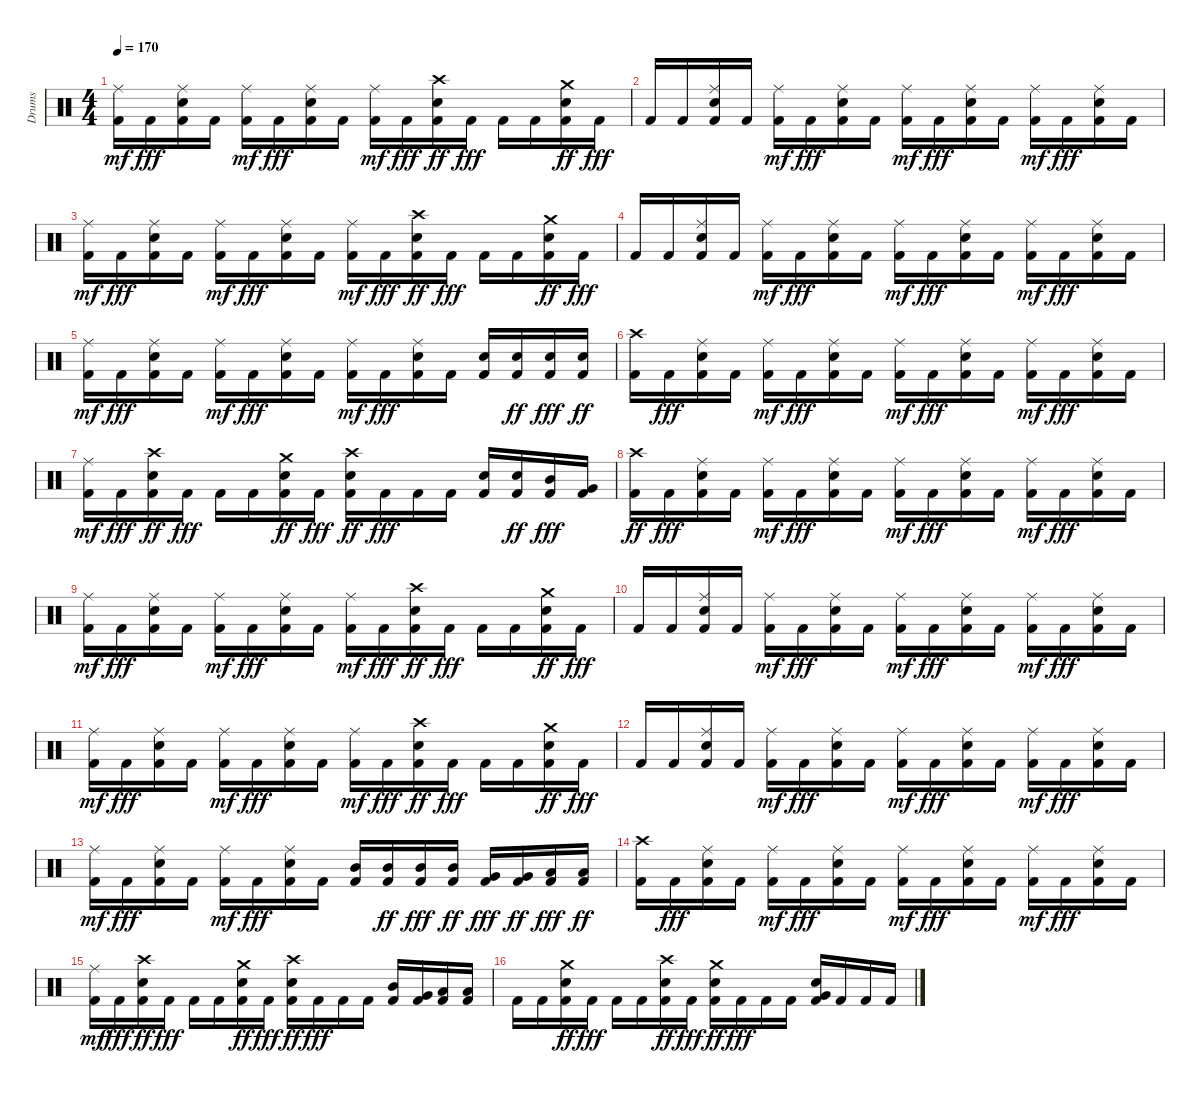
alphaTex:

\track ("Drums" "Drums") {instrument percussion}
\staff {score}
\articulation defaults
\ts (4 4)
\tempo 170
\clef neutral
\ks c
("Kick (hit) 2" "Ride (middle)").16{dy mf} "Kick (hit) 2".16{dy fff} ("Kick (hit) 2" "Snare (hit) 2" "Ride (middle)").16 "Kick (hit) 2".16 ("Kick (hit) 2" "Ride (middle)").16{dy mf} "Kick (hit) 2".16{dy fff} ("Kick (hit) 2" "Snare (hit) 2" "Ride (middle)").16 "Kick (hit) 2".16 ("Kick (hit) 2" "Ride (middle)").16{dy mf} "Kick (hit) 2".16{dy fff} ("Kick (hit) 2" "Snare (hit) 2" "Crash high (hit)").16{dy ff} "Kick (hit) 2".16{dy fff} "Kick (hit) 2".16 "Kick (hit) 2".16 ("Kick (hit) 2" "Snare (hit) 2" "Crash medium (hit)").16{dy ff} "Kick (hit) 2".16{dy fff} |
"Kick (hit) 2".16 "Kick (hit) 2".16 ("Kick (hit) 2" "Snare (hit) 2" "Ride (middle)").16 "Kick (hit) 2".16 ("Kick (hit) 2" "Ride (middle)").16{dy mf} "Kick (hit) 2".16{dy fff} ("Kick (hit) 2" "Snare (hit) 2" "Ride (middle)").16 "Kick (hit) 2".16 ("Kick (hit) 2" "Ride (middle)").16{dy mf} "Kick (hit) 2".16{dy fff} ("Kick (hit) 2" "Snare (hit) 2" "Ride (middle)").16 "Kick (hit) 2".16 ("Kick (hit) 2" "Ride (middle)").16{dy mf} "Kick (hit) 2".16{dy fff} ("Kick (hit) 2" "Snare (hit) 2" "Ride (middle)").16 "Kick (hit) 2".16 |
("Kick (hit) 2" "Ride (middle)").16{dy mf} "Kick (hit) 2".16{dy fff} ("Kick (hit) 2" "Snare (hit) 2" "Ride (middle)").16 "Kick (hit) 2".16 ("Kick (hit) 2" "Ride (middle)").16{dy mf} "Kick (hit) 2".16{dy fff} ("Kick (hit) 2" "Snare (hit) 2" "Ride (middle)").16 "Kick (hit) 2".16 ("Kick (hit) 2" "Ride (middle)").16{dy mf} "Kick (hit) 2".16{dy fff} ("Kick (hit) 2" "Snare (hit) 2" "Crash high (hit)").16{dy ff} "Kick (hit) 2".16{dy fff} "Kick (hit) 2".16 "Kick (hit) 2".16 ("Kick (hit) 2" "Snare (hit) 2" "Crash medium (hit)").16{dy ff} "Kick (hit) 2".16{dy fff} |
"Kick (hit) 2".16 "Kick (hit) 2".16 ("Kick (hit) 2" "Snare (hit) 2" "Ride (middle)").16 "Kick (hit) 2".16 ("Kick (hit) 2" "Ride (middle)").16{dy mf} "Kick (hit) 2".16{dy fff} ("Kick (hit) 2" "Snare (hit) 2" "Ride (middle)").16 "Kick (hit) 2".16 ("Kick (hit) 2" "Ride (middle)").16{dy mf} "Kick (hit) 2".16{dy fff} ("Kick (hit) 2" "Snare (hit) 2" "Ride (middle)").16 "Kick (hit) 2".16 ("Kick (hit) 2" "Ride (middle)").16{dy mf} "Kick (hit) 2".16{dy fff} ("Kick (hit) 2" "Snare (hit) 2" "Ride (middle)").16 "Kick (hit) 2".16 |
("Kick (hit) 2" "Ride (middle)").16{dy mf} "Kick (hit) 2".16{dy fff} ("Kick (hit) 2" "Snare (hit) 2" "Ride (middle)").16 "Kick (hit) 2".16 ("Kick (hit) 2" "Ride (middle)").16{dy mf} "Kick (hit) 2".16{dy fff} ("Kick (hit) 2" "Snare (hit) 2" "Ride (middle)").16 "Kick (hit) 2".16 ("Kick (hit) 2" "Ride (middle)").16{dy mf} "Kick (hit) 2".16{dy fff} ("Kick (hit) 2" "Snare (hit) 2" "Ride (middle)").16 "Kick (hit) 2".16 ("Kick (hit) 2" "Snare (hit) 2").16 ("Kick (hit) 2" "Snare (hit) 2").16{dy ff} ("Kick (hit) 2" "Snare (hit) 2").16{dy fff} ("Kick (hit) 2" "Snare (hit) 2").16{dy ff} |
("Kick (hit) 2" "Crash high (hit)").16 "Kick (hit) 2".16{dy fff} ("Kick (hit) 2" "Snare (hit) 2" "Ride (middle)").16 "Kick (hit) 2".16 ("Kick (hit) 2" "Ride (middle)").16{dy mf} "Kick (hit) 2".16{dy fff} ("Kick (hit) 2" "Snare (hit) 2" "Ride (middle)").16 "Kick (hit) 2".16 ("Kick (hit) 2" "Ride (middle)").16{dy mf} "Kick (hit) 2".16{dy fff} ("Kick (hit) 2" "Snare (hit) 2" "Ride (middle)").16 "Kick (hit) 2".16 ("Kick (hit) 2" "Ride (middle)").16{dy mf} "Kick (hit) 2".16{dy fff} ("Kick (hit) 2" "Snare (hit) 2" "Ride (middle)").16 "Kick (hit) 2".16 |
("Kick (hit) 2" "Ride (middle)").16{dy mf} "Kick (hit) 2".16{dy fff} ("Kick (hit) 2" "Snare (hit) 2" "Crash high (hit)").16{dy ff} "Kick (hit) 2".16{dy fff} "Kick (hit) 2".16 "Kick (hit) 2".16 ("Kick (hit) 2" "Snare (hit) 2" "Crash medium (hit)").16{dy ff} "Kick (hit) 2".16{dy fff} ("Kick (hit) 2" "Snare (hit) 2" "Crash high (hit)").16{dy ff} "Kick (hit) 2".16{dy fff} "Kick (hit) 2".16 "Kick (hit) 2".16 ("Kick (hit) 2" "Snare (hit) 2").16 ("Kick (hit) 2" "Snare (hit) 2").16{dy ff} ("Kick (hit) 2" "Mid Tom (hit)").16{dy fff} ("Kick (hit) 2" "Very Low Tom (hit)").16 |
("Kick (hit) 2" "Crash high (hit)").16{dy ff} "Kick (hit) 2".16{dy fff} ("Kick (hit) 2" "Snare (hit) 2" "Ride (middle)").16 "Kick (hit) 2".16 ("Kick (hit) 2" "Ride (middle)").16{dy mf} "Kick (hit) 2".16{dy fff} ("Kick (hit) 2" "Snare (hit) 2" "Ride (middle)").16 "Kick (hit) 2".16 ("Kick (hit) 2" "Ride (middle)").16{dy mf} "Kick (hit) 2".16{dy fff} ("Kick (hit) 2" "Snare (hit) 2" "Ride (middle)").16 "Kick (hit) 2".16 ("Kick (hit) 2" "Ride (middle)").16{dy mf} "Kick (hit) 2".16{dy fff} ("Kick (hit) 2" "Snare (hit) 2" "Ride (middle)").16 "Kick (hit) 2".16 |
("Kick (hit) 2" "Ride (middle)").16{dy mf} "Kick (hit) 2".16{dy fff} ("Kick (hit) 2" "Snare (hit) 2" "Ride (middle)").16 "Kick (hit) 2".16 ("Kick (hit) 2" "Ride (middle)").16{dy mf} "Kick (hit) 2".16{dy fff} ("Kick (hit) 2" "Snare (hit) 2" "Ride (middle)").16 "Kick (hit) 2".16 ("Kick (hit) 2" "Ride (middle)").16{dy mf} "Kick (hit) 2".16{dy fff} ("Kick (hit) 2" "Snare (hit) 2" "Crash high (hit)").16{dy ff} "Kick (hit) 2".16{dy fff} "Kick (hit) 2".16 "Kick (hit) 2".16 ("Kick (hit) 2" "Snare (hit) 2" "Crash medium (hit)").16{dy ff} "Kick (hit) 2".16{dy fff} |
"Kick (hit) 2".16 "Kick (hit) 2".16 ("Kick (hit) 2" "Snare (hit) 2" "Ride (middle)").16 "Kick (hit) 2".16 ("Kick (hit) 2" "Ride (middle)").16{dy mf} "Kick (hit) 2".16{dy fff} ("Kick (hit) 2" "Snare (hit) 2" "Ride (middle)").16 "Kick (hit) 2".16 ("Kick (hit) 2" "Ride (middle)").16{dy mf} "Kick (hit) 2".16{dy fff} ("Kick (hit) 2" "Snare (hit) 2" "Ride (middle)").16 "Kick (hit) 2".16 ("Kick (hit) 2" "Ride (middle)").16{dy mf} "Kick (hit) 2".16{dy fff} ("Kick (hit) 2" "Snare (hit) 2" "Ride (middle)").16 "Kick (hit) 2".16 |
("Kick (hit) 2" "Ride (middle)").16{dy mf} "Kick (hit) 2".16{dy fff} ("Kick (hit) 2" "Snare (hit) 2" "Ride (middle)").16 "Kick (hit) 2".16 ("Kick (hit) 2" "Ride (middle)").16{dy mf} "Kick (hit) 2".16{dy fff} ("Kick (hit) 2" "Snare (hit) 2" "Ride (middle)").16 "Kick (hit) 2".16 ("Kick (hit) 2" "Ride (middle)").16{dy mf} "Kick (hit) 2".16{dy fff} ("Kick (hit) 2" "Snare (hit) 2" "Crash high (hit)").16{dy ff} "Kick (hit) 2".16{dy fff} "Kick (hit) 2".16 "Kick (hit) 2".16 ("Kick (hit) 2" "Snare (hit) 2" "Crash medium (hit)").16{dy ff} "Kick (hit) 2".16{dy fff} |
"Kick (hit) 2".16 "Kick (hit) 2".16 ("Kick (hit) 2" "Snare (hit) 2" "Ride (middle)").16 "Kick (hit) 2".16 ("Kick (hit) 2" "Ride (middle)").16{dy mf} "Kick (hit) 2".16{dy fff} ("Kick (hit) 2" "Snare (hit) 2" "Ride (middle)").16 "Kick (hit) 2".16 ("Kick (hit) 2" "Ride (middle)").16{dy mf} "Kick (hit) 2".16{dy fff} ("Kick (hit) 2" "Snare (hit) 2" "Ride (middle)").16 "Kick (hit) 2".16 ("Kick (hit) 2" "Ride (middle)").16{dy mf} "Kick (hit) 2".16{dy fff} ("Kick (hit) 2" "Snare (hit) 2" "Ride (middle)").16 "Kick (hit) 2".16 |
("Kick (hit) 2" "Ride (middle)").16{dy mf} "Kick (hit) 2".16{dy fff} ("Kick (hit) 2" "Snare (hit) 2" "Ride (middle)").16 "Kick (hit) 2".16 ("Kick (hit) 2" "Ride (middle)").16{dy mf} "Kick (hit) 2".16{dy fff} ("Kick (hit) 2" "Snare (hit) 2" "Ride (middle)").16 "Kick (hit) 2".16 ("Kick (hit) 2" "Mid Tom (hit)").16 ("Kick (hit) 2" "Mid Tom (hit)").16{dy ff} ("Kick (hit) 2" "Mid Tom (hit)").16{dy fff} ("Kick (hit) 2" "Mid Tom (hit)").16{dy ff} ("Kick (hit) 2" "Very Low Tom (hit)").16{dy fff} ("Kick (hit) 2" "Very Low Tom (hit)").16{dy ff} ("Kick (hit) 2" "Low Floor Tom (hit)").16{dy fff} ("Kick (hit) 2" "Low Floor Tom (hit)").16{dy ff} |
("Kick (hit) 2" "Crash high (hit)").16 "Kick (hit) 2".16{dy fff} ("Kick (hit) 2" "Snare (hit) 2" "Ride (middle)").16 "Kick (hit) 2".16 ("Kick (hit) 2" "Ride (middle)").16{dy mf} "Kick (hit) 2".16{dy fff} ("Kick (hit) 2" "Snare (hit) 2" "Ride (middle)").16 "Kick (hit) 2".16 ("Kick (hit) 2" "Ride (middle)").16{dy mf} "Kick (hit) 2".16{dy fff} ("Kick (hit) 2" "Snare (hit) 2" "Ride (middle)").16 "Kick (hit) 2".16 ("Kick (hit) 2" "Ride (middle)").16{dy mf} "Kick (hit) 2".16{dy fff} ("Kick (hit) 2" "Snare (hit) 2" "Ride (middle)").16 "Kick (hit) 2".16 |
("Kick (hit) 2" "Ride (middle)").16{dy mf} "Kick (hit) 2".16{dy fff} ("Kick (hit) 2" "Snare (hit) 2" "Crash high (hit)").16{dy ff} "Kick (hit) 2".16{dy fff} "Kick (hit) 2".16 "Kick (hit) 2".16 ("Kick (hit) 2" "Snare (hit) 2" "Crash medium (hit)").16{dy ff} "Kick (hit) 2".16{dy fff} ("Kick (hit) 2" "Snare (hit) 2" "Crash high (hit)").16{dy ff} "Kick (hit) 2".16{dy fff} "Kick (hit) 2".16 "Kick (hit) 2".16 ("Kick (hit) 2" "Mid Tom (hit)").16 ("Kick (hit) 2" "Very Low Tom (hit)").16 ("Kick (hit) 2" "Low Floor Tom (hit)").16 ("Kick (hit) 2" "Low Floor Tom (hit)").16 |
"Kick (hit) 2".16 "Kick (hit) 2".16 ("Kick (hit) 2" "Snare (hit) 2" "Crash medium (hit)").16{dy ff} "Kick (hit) 2".16{dy fff} "Kick (hit) 2".16 "Kick (hit) 2".16 ("Kick (hit) 2" "Snare (hit) 2" "Crash high (hit)").16{dy ff} "Kick (hit) 2".16{dy fff} ("Kick (hit) 2" "Snare (hit) 2" "Crash medium (hit)").16{dy ff} "Kick (hit) 2".16{dy fff} "Kick (hit) 2".16 "Kick (hit) 2".16 ("Kick (hit) 2" "Snare (hit) 2" "Very Low Tom (hit)").16 "Kick (hit) 2".16 "Kick (hit) 2".16 "Kick (hit) 2".16
